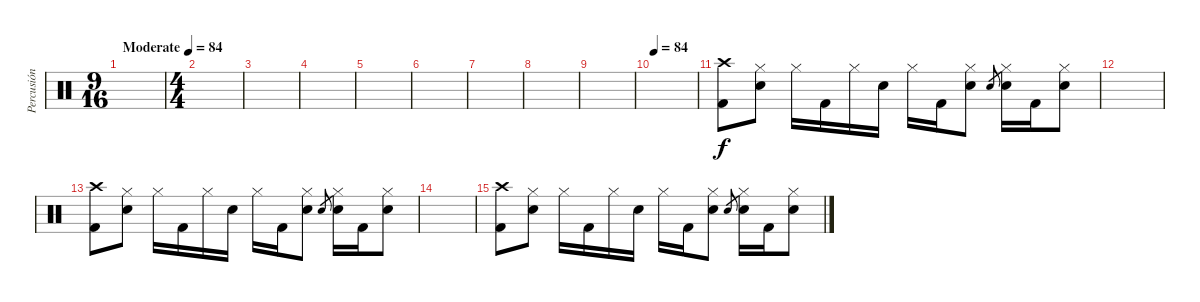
\track ("Percusión" "Percusión") {instrument percussion}
\staff {score}
\articulation defaults
\ts (9 16)
\tempo (84 "Moderate")
\clef neutral
\ks c
|
\ts (4 4)
|
|
|
|
|
|
|
|
\tempo 84
|
("Kick (hit) 2" "Crash high (hit)").8 ("Electric Snare (hit)" "Hi-Hat (closed)").8 "Hi-Hat (closed)".16 "Kick (hit) 2".16 "Hi-Hat (closed)".16 "Electric Snare (hit)".16 "Hi-Hat (closed)".16 "Kick (hit) 2".16 ("Electric Snare (hit)" "Hi-Hat (closed)").8 "Electric Snare (hit)".8{gr} ("Electric Snare (hit)" "Hi-Hat (closed)").16 "Kick (hit) 2".16 ("Electric Snare (hit)" "Hi-Hat (closed)").8 |
|
("Kick (hit) 2" "Crash high (hit)").8 ("Electric Snare (hit)" "Hi-Hat (closed)").8 "Hi-Hat (closed)".16 "Kick (hit) 2".16 "Hi-Hat (closed)".16 "Electric Snare (hit)".16 "Hi-Hat (closed)".16 "Kick (hit) 2".16 ("Electric Snare (hit)" "Hi-Hat (closed)").8 "Electric Snare (hit)".8{gr} ("Electric Snare (hit)" "Hi-Hat (closed)").16 "Kick (hit) 2".16 ("Electric Snare (hit)" "Hi-Hat (closed)").8 |
|
("Kick (hit) 2" "Crash high (hit)").8 ("Electric Snare (hit)" "Hi-Hat (closed)").8 "Hi-Hat (closed)".16 "Kick (hit) 2".16 "Hi-Hat (closed)".16 "Electric Snare (hit)".16 "Hi-Hat (closed)".16 "Kick (hit) 2".16 ("Electric Snare (hit)" "Hi-Hat (closed)").8 "Electric Snare (hit)".8{gr} ("Electric Snare (hit)" "Hi-Hat (closed)").16 "Kick (hit) 2".16 ("Electric Snare (hit)" "Hi-Hat (closed)").8
